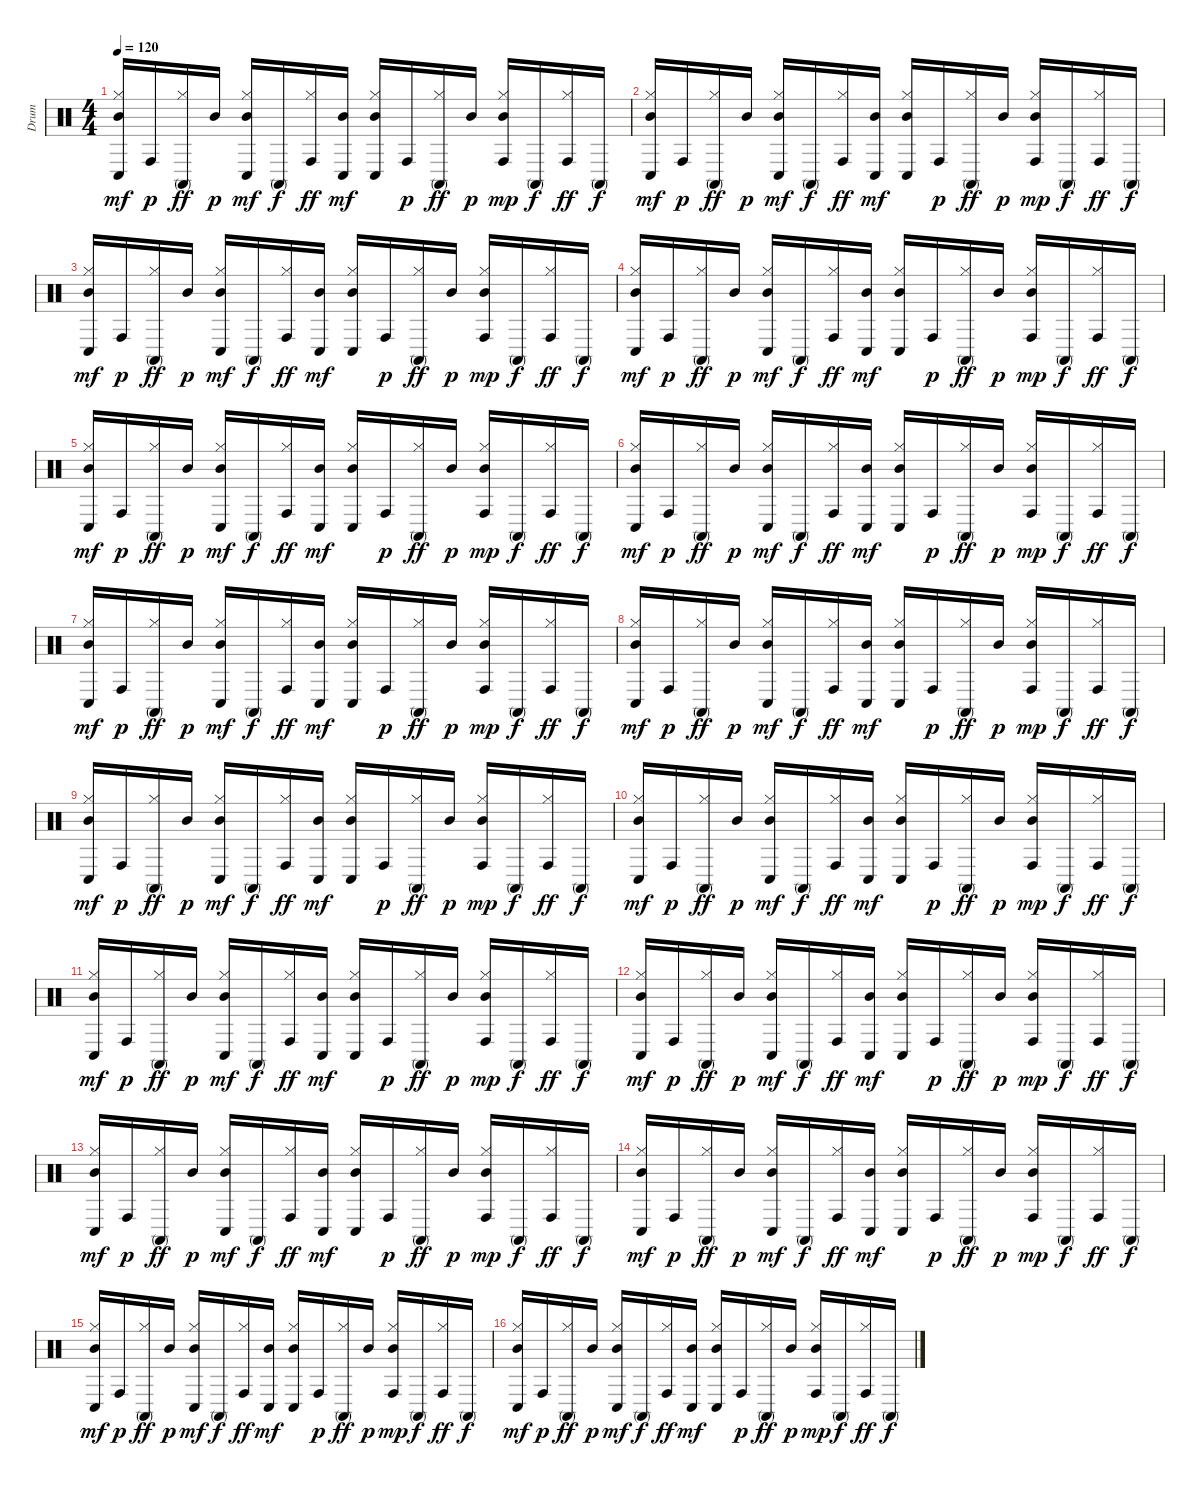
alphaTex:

\track ("Drum" "Drum") {instrument percussion}
\staff {score}
\articulation defaults
\ts (4 4)
\tempo 120
\clef neutral
\ks c
("Mid Tom (hit)" "Hi-Hat (closed)" "Conga low (hit)").16{dy mf} "Conga high (hit)".16{dy p} ("Hi-Hat (closed)" "Conga high (mute)").16{dy ff} "Mid Tom (hit)".16{dy p} ("Mid Tom (hit)" "Hi-Hat (closed)" "Conga low (hit)").16{dy mf} "Conga high (mute)".16{dy f} ("Conga high (hit)" "Hi-Hat (closed)").16{dy ff} ("Mid Tom (hit)" "Conga low (hit)").16{dy mf} ("Mid Tom (hit)" "Hi-Hat (closed)" "Conga low (hit)").16 "Conga high (hit)".16{dy p} ("Hi-Hat (closed)" "Conga high (mute)").16{dy ff} "Mid Tom (hit)".16{dy p} ("Mid Tom (hit)" "Hi-Hat (closed)" "Conga high (hit)").16{dy mp} "Conga high (mute)".16{dy f} ("Conga high (hit)" "Hi-Hat (closed)").16{dy ff} "Conga high (mute)".16{dy f} |
("Mid Tom (hit)" "Hi-Hat (closed)" "Conga low (hit)").16{dy mf} "Conga high (hit)".16{dy p} ("Hi-Hat (closed)" "Conga high (mute)").16{dy ff} "Mid Tom (hit)".16{dy p} ("Mid Tom (hit)" "Hi-Hat (closed)" "Conga low (hit)").16{dy mf} "Conga high (mute)".16{dy f} ("Conga high (hit)" "Hi-Hat (closed)").16{dy ff} ("Mid Tom (hit)" "Conga low (hit)").16{dy mf} ("Mid Tom (hit)" "Hi-Hat (closed)" "Conga low (hit)").16 "Conga high (hit)".16{dy p} ("Hi-Hat (closed)" "Conga high (mute)").16{dy ff} "Mid Tom (hit)".16{dy p} ("Mid Tom (hit)" "Hi-Hat (closed)" "Conga high (hit)").16{dy mp} "Conga high (mute)".16{dy f} ("Conga high (hit)" "Hi-Hat (closed)").16{dy ff} "Conga high (mute)".16{dy f} |
("Mid Tom (hit)" "Hi-Hat (closed)" "Conga low (hit)").16{dy mf} "Conga high (hit)".16{dy p} ("Hi-Hat (closed)" "Conga high (mute)").16{dy ff} "Mid Tom (hit)".16{dy p} ("Mid Tom (hit)" "Hi-Hat (closed)" "Conga low (hit)").16{dy mf} "Conga high (mute)".16{dy f} ("Conga high (hit)" "Hi-Hat (closed)").16{dy ff} ("Mid Tom (hit)" "Conga low (hit)").16{dy mf} ("Mid Tom (hit)" "Hi-Hat (closed)" "Conga low (hit)").16 "Conga high (hit)".16{dy p} ("Hi-Hat (closed)" "Conga high (mute)").16{dy ff} "Mid Tom (hit)".16{dy p} ("Mid Tom (hit)" "Hi-Hat (closed)" "Conga high (hit)").16{dy mp} "Conga high (mute)".16{dy f} ("Conga high (hit)" "Hi-Hat (closed)").16{dy ff} "Conga high (mute)".16{dy f} |
("Mid Tom (hit)" "Hi-Hat (closed)" "Conga low (hit)").16{dy mf} "Conga high (hit)".16{dy p} ("Hi-Hat (closed)" "Conga high (mute)").16{dy ff} "Mid Tom (hit)".16{dy p} ("Mid Tom (hit)" "Hi-Hat (closed)" "Conga low (hit)").16{dy mf} "Conga high (mute)".16{dy f} ("Conga high (hit)" "Hi-Hat (closed)").16{dy ff} ("Mid Tom (hit)" "Conga low (hit)").16{dy mf} ("Mid Tom (hit)" "Hi-Hat (closed)" "Conga low (hit)").16 "Conga high (hit)".16{dy p} ("Hi-Hat (closed)" "Conga high (mute)").16{dy ff} "Mid Tom (hit)".16{dy p} ("Mid Tom (hit)" "Hi-Hat (closed)" "Conga high (hit)").16{dy mp} "Conga high (mute)".16{dy f} ("Conga high (hit)" "Hi-Hat (closed)").16{dy ff} "Conga high (mute)".16{dy f} |
("Mid Tom (hit)" "Hi-Hat (closed)" "Conga low (hit)").16{dy mf} "Conga high (hit)".16{dy p} ("Hi-Hat (closed)" "Conga high (mute)").16{dy ff} "Mid Tom (hit)".16{dy p} ("Mid Tom (hit)" "Hi-Hat (closed)" "Conga low (hit)").16{dy mf} "Conga high (mute)".16{dy f} ("Conga high (hit)" "Hi-Hat (closed)").16{dy ff} ("Mid Tom (hit)" "Conga low (hit)").16{dy mf} ("Mid Tom (hit)" "Hi-Hat (closed)" "Conga low (hit)").16 "Conga high (hit)".16{dy p} ("Hi-Hat (closed)" "Conga high (mute)").16{dy ff} "Mid Tom (hit)".16{dy p} ("Mid Tom (hit)" "Hi-Hat (closed)" "Conga high (hit)").16{dy mp} "Conga high (mute)".16{dy f} ("Conga high (hit)" "Hi-Hat (closed)").16{dy ff} "Conga high (mute)".16{dy f} |
("Mid Tom (hit)" "Hi-Hat (closed)" "Conga low (hit)").16{dy mf} "Conga high (hit)".16{dy p} ("Hi-Hat (closed)" "Conga high (mute)").16{dy ff} "Mid Tom (hit)".16{dy p} ("Mid Tom (hit)" "Hi-Hat (closed)" "Conga low (hit)").16{dy mf} "Conga high (mute)".16{dy f} ("Conga high (hit)" "Hi-Hat (closed)").16{dy ff} ("Mid Tom (hit)" "Conga low (hit)").16{dy mf} ("Mid Tom (hit)" "Hi-Hat (closed)" "Conga low (hit)").16 "Conga high (hit)".16{dy p} ("Hi-Hat (closed)" "Conga high (mute)").16{dy ff} "Mid Tom (hit)".16{dy p} ("Mid Tom (hit)" "Hi-Hat (closed)" "Conga high (hit)").16{dy mp} "Conga high (mute)".16{dy f} ("Conga high (hit)" "Hi-Hat (closed)").16{dy ff} "Conga high (mute)".16{dy f} |
("Mid Tom (hit)" "Hi-Hat (closed)" "Conga low (hit)").16{dy mf} "Conga high (hit)".16{dy p} ("Hi-Hat (closed)" "Conga high (mute)").16{dy ff} "Mid Tom (hit)".16{dy p} ("Mid Tom (hit)" "Hi-Hat (closed)" "Conga low (hit)").16{dy mf} "Conga high (mute)".16{dy f} ("Conga high (hit)" "Hi-Hat (closed)").16{dy ff} ("Mid Tom (hit)" "Conga low (hit)").16{dy mf} ("Mid Tom (hit)" "Hi-Hat (closed)" "Conga low (hit)").16 "Conga high (hit)".16{dy p} ("Hi-Hat (closed)" "Conga high (mute)").16{dy ff} "Mid Tom (hit)".16{dy p} ("Mid Tom (hit)" "Hi-Hat (closed)" "Conga high (hit)").16{dy mp} "Conga high (mute)".16{dy f} ("Conga high (hit)" "Hi-Hat (closed)").16{dy ff} "Conga high (mute)".16{dy f} |
("Mid Tom (hit)" "Hi-Hat (closed)" "Conga low (hit)").16{dy mf} "Conga high (hit)".16{dy p} ("Hi-Hat (closed)" "Conga high (mute)").16{dy ff} "Mid Tom (hit)".16{dy p} ("Mid Tom (hit)" "Hi-Hat (closed)" "Conga low (hit)").16{dy mf} "Conga high (mute)".16{dy f} ("Conga high (hit)" "Hi-Hat (closed)").16{dy ff} ("Mid Tom (hit)" "Conga low (hit)").16{dy mf} ("Mid Tom (hit)" "Hi-Hat (closed)" "Conga low (hit)").16 "Conga high (hit)".16{dy p} ("Hi-Hat (closed)" "Conga high (mute)").16{dy ff} "Mid Tom (hit)".16{dy p} ("Mid Tom (hit)" "Hi-Hat (closed)" "Conga high (hit)").16{dy mp} "Conga high (mute)".16{dy f} ("Conga high (hit)" "Hi-Hat (closed)").16{dy ff} "Conga high (mute)".16{dy f} |
("Mid Tom (hit)" "Hi-Hat (closed)" "Conga low (hit)").16{dy mf} "Conga high (hit)".16{dy p} ("Hi-Hat (closed)" "Conga high (mute)").16{dy ff} "Mid Tom (hit)".16{dy p} ("Mid Tom (hit)" "Hi-Hat (closed)" "Conga low (hit)").16{dy mf} "Conga high (mute)".16{dy f} ("Conga high (hit)" "Hi-Hat (closed)").16{dy ff} ("Mid Tom (hit)" "Conga low (hit)").16{dy mf} ("Mid Tom (hit)" "Hi-Hat (closed)" "Conga low (hit)").16 "Conga high (hit)".16{dy p} ("Hi-Hat (closed)" "Conga high (mute)").16{dy ff} "Mid Tom (hit)".16{dy p} ("Mid Tom (hit)" "Hi-Hat (closed)" "Conga high (hit)").16{dy mp} "Conga high (mute)".16{dy f} ("Conga high (hit)" "Hi-Hat (closed)").16{dy ff} "Conga high (mute)".16{dy f} |
("Mid Tom (hit)" "Hi-Hat (closed)" "Conga low (hit)").16{dy mf} "Conga high (hit)".16{dy p} ("Hi-Hat (closed)" "Conga high (mute)").16{dy ff} "Mid Tom (hit)".16{dy p} ("Mid Tom (hit)" "Hi-Hat (closed)" "Conga low (hit)").16{dy mf} "Conga high (mute)".16{dy f} ("Conga high (hit)" "Hi-Hat (closed)").16{dy ff} ("Mid Tom (hit)" "Conga low (hit)").16{dy mf} ("Mid Tom (hit)" "Hi-Hat (closed)" "Conga low (hit)").16 "Conga high (hit)".16{dy p} ("Hi-Hat (closed)" "Conga high (mute)").16{dy ff} "Mid Tom (hit)".16{dy p} ("Mid Tom (hit)" "Hi-Hat (closed)" "Conga high (hit)").16{dy mp} "Conga high (mute)".16{dy f} ("Conga high (hit)" "Hi-Hat (closed)").16{dy ff} "Conga high (mute)".16{dy f} |
("Mid Tom (hit)" "Hi-Hat (closed)" "Conga low (hit)").16{dy mf} "Conga high (hit)".16{dy p} ("Hi-Hat (closed)" "Conga high (mute)").16{dy ff} "Mid Tom (hit)".16{dy p} ("Mid Tom (hit)" "Hi-Hat (closed)" "Conga low (hit)").16{dy mf} "Conga high (mute)".16{dy f} ("Conga high (hit)" "Hi-Hat (closed)").16{dy ff} ("Mid Tom (hit)" "Conga low (hit)").16{dy mf} ("Mid Tom (hit)" "Hi-Hat (closed)" "Conga low (hit)").16 "Conga high (hit)".16{dy p} ("Hi-Hat (closed)" "Conga high (mute)").16{dy ff} "Mid Tom (hit)".16{dy p} ("Mid Tom (hit)" "Hi-Hat (closed)" "Conga high (hit)").16{dy mp} "Conga high (mute)".16{dy f} ("Conga high (hit)" "Hi-Hat (closed)").16{dy ff} "Conga high (mute)".16{dy f} |
("Mid Tom (hit)" "Hi-Hat (closed)" "Conga low (hit)").16{dy mf} "Conga high (hit)".16{dy p} ("Hi-Hat (closed)" "Conga high (mute)").16{dy ff} "Mid Tom (hit)".16{dy p} ("Mid Tom (hit)" "Hi-Hat (closed)" "Conga low (hit)").16{dy mf} "Conga high (mute)".16{dy f} ("Conga high (hit)" "Hi-Hat (closed)").16{dy ff} ("Mid Tom (hit)" "Conga low (hit)").16{dy mf} ("Mid Tom (hit)" "Hi-Hat (closed)" "Conga low (hit)").16 "Conga high (hit)".16{dy p} ("Hi-Hat (closed)" "Conga high (mute)").16{dy ff} "Mid Tom (hit)".16{dy p} ("Mid Tom (hit)" "Hi-Hat (closed)" "Conga high (hit)").16{dy mp} "Conga high (mute)".16{dy f} ("Conga high (hit)" "Hi-Hat (closed)").16{dy ff} "Conga high (mute)".16{dy f} |
("Mid Tom (hit)" "Hi-Hat (closed)" "Conga low (hit)").16{dy mf} "Conga high (hit)".16{dy p} ("Hi-Hat (closed)" "Conga high (mute)").16{dy ff} "Mid Tom (hit)".16{dy p} ("Mid Tom (hit)" "Hi-Hat (closed)" "Conga low (hit)").16{dy mf} "Conga high (mute)".16{dy f} ("Conga high (hit)" "Hi-Hat (closed)").16{dy ff} ("Mid Tom (hit)" "Conga low (hit)").16{dy mf} ("Mid Tom (hit)" "Hi-Hat (closed)" "Conga low (hit)").16 "Conga high (hit)".16{dy p} ("Hi-Hat (closed)" "Conga high (mute)").16{dy ff} "Mid Tom (hit)".16{dy p} ("Mid Tom (hit)" "Hi-Hat (closed)" "Conga high (hit)").16{dy mp} "Conga high (mute)".16{dy f} ("Conga high (hit)" "Hi-Hat (closed)").16{dy ff} "Conga high (mute)".16{dy f} |
("Mid Tom (hit)" "Hi-Hat (closed)" "Conga low (hit)").16{dy mf} "Conga high (hit)".16{dy p} ("Hi-Hat (closed)" "Conga high (mute)").16{dy ff} "Mid Tom (hit)".16{dy p} ("Mid Tom (hit)" "Hi-Hat (closed)" "Conga low (hit)").16{dy mf} "Conga high (mute)".16{dy f} ("Conga high (hit)" "Hi-Hat (closed)").16{dy ff} ("Mid Tom (hit)" "Conga low (hit)").16{dy mf} ("Mid Tom (hit)" "Hi-Hat (closed)" "Conga low (hit)").16 "Conga high (hit)".16{dy p} ("Hi-Hat (closed)" "Conga high (mute)").16{dy ff} "Mid Tom (hit)".16{dy p} ("Mid Tom (hit)" "Hi-Hat (closed)" "Conga high (hit)").16{dy mp} "Conga high (mute)".16{dy f} ("Conga high (hit)" "Hi-Hat (closed)").16{dy ff} "Conga high (mute)".16{dy f} |
("Mid Tom (hit)" "Hi-Hat (closed)" "Conga low (hit)").16{dy mf} "Conga high (hit)".16{dy p} ("Hi-Hat (closed)" "Conga high (mute)").16{dy ff} "Mid Tom (hit)".16{dy p} ("Mid Tom (hit)" "Hi-Hat (closed)" "Conga low (hit)").16{dy mf} "Conga high (mute)".16{dy f} ("Conga high (hit)" "Hi-Hat (closed)").16{dy ff} ("Mid Tom (hit)" "Conga low (hit)").16{dy mf} ("Mid Tom (hit)" "Hi-Hat (closed)" "Conga low (hit)").16 "Conga high (hit)".16{dy p} ("Hi-Hat (closed)" "Conga high (mute)").16{dy ff} "Mid Tom (hit)".16{dy p} ("Mid Tom (hit)" "Hi-Hat (closed)" "Conga high (hit)").16{dy mp} "Conga high (mute)".16{dy f} ("Conga high (hit)" "Hi-Hat (closed)").16{dy ff} "Conga high (mute)".16{dy f} |
("Mid Tom (hit)" "Hi-Hat (closed)" "Conga low (hit)").16{dy mf} "Conga high (hit)".16{dy p} ("Hi-Hat (closed)" "Conga high (mute)").16{dy ff} "Mid Tom (hit)".16{dy p} ("Mid Tom (hit)" "Hi-Hat (closed)" "Conga low (hit)").16{dy mf} "Conga high (mute)".16{dy f} ("Conga high (hit)" "Hi-Hat (closed)").16{dy ff} ("Mid Tom (hit)" "Conga low (hit)").16{dy mf} ("Mid Tom (hit)" "Hi-Hat (closed)" "Conga low (hit)").16 "Conga high (hit)".16{dy p} ("Hi-Hat (closed)" "Conga high (mute)").16{dy ff} "Mid Tom (hit)".16{dy p} ("Mid Tom (hit)" "Hi-Hat (closed)" "Conga high (hit)").16{dy mp} "Conga high (mute)".16{dy f} ("Conga high (hit)" "Hi-Hat (closed)").16{dy ff} "Conga high (mute)".16{dy f}
